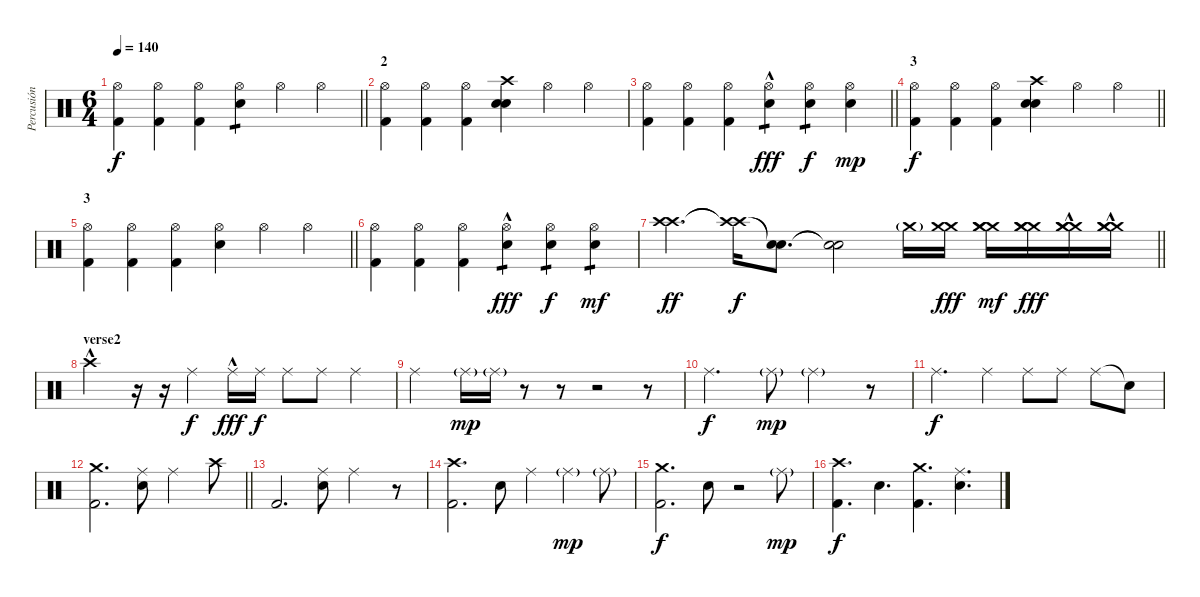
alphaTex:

\track ("Percusión" "Percusión") {instrument percussion}
\staff {score}
\articulation defaults
\ts (6 4)
\tempo 140
\clef neutral
\barLineRight lightlight
\ks c
("Hi-Hat (open)" "Kick (hit) 2").4{dy f} ("Hi-Hat (open)" "Kick (hit) 2").4 ("Hi-Hat (open)" "Kick (hit) 2").4 ("Hi-Hat (open)" "Snare (hit) 2").4{tp 1} "Hi-Hat (open)".4 "Hi-Hat (open)".4 |
\section ("" "2")
("Hi-Hat (open)" "Kick (hit) 2").4 ("Hi-Hat (open)" "Kick (hit) 2").4 ("Hi-Hat (open)" "Kick (hit) 2").4 ("Crash high (hit)" "Electric Snare (hit)" "Electric Snare (hit)").4 "Hi-Hat (open)".4 "Hi-Hat (open)".4 |
\barLineRight lightlight
("Hi-Hat (open)" "Kick (hit) 2").4 ("Hi-Hat (open)" "Kick (hit) 2").4 ("Hi-Hat (open)" "Kick (hit) 2").4 ("Hi-Hat (open)" "Electric Snare (hit)"{hac}).4{tp 1 dy fff} ("Hi-Hat (open)" "Snare (hit) 2").4{tp 1 dy f} ("Hi-Hat (open)" "Snare (hit) 2").4{dy mp} |
\section ("" "3")
\barLineRight lightlight
("Hi-Hat (open)" "Kick (hit) 2").4{dy f} ("Hi-Hat (open)" "Kick (hit) 2").4 ("Hi-Hat (open)" "Kick (hit) 2").4 ("Crash high (hit)" "Electric Snare (hit)" "Electric Snare (hit)").4 "Hi-Hat (open)".4 "Hi-Hat (open)".4 |
\section ("" "3")
\barLineRight lightlight
("Hi-Hat (open)" "Kick (hit) 2").4 ("Hi-Hat (open)" "Kick (hit) 2").4 ("Hi-Hat (open)" "Kick (hit) 2").4 ("Hi-Hat (open)" "Snare (hit) 2").4 "Hi-Hat (open)".4 "Hi-Hat (open)".4 |
("Hi-Hat (open)" "Kick (hit) 2").4 ("Hi-Hat (open)" "Kick (hit) 2").4 ("Hi-Hat (open)" "Kick (hit) 2").4 ("Hi-Hat (open)" "Electric Snare (hit)"{hac}).4{tp 1 dy fff} ("Hi-Hat (open)" "Snare (hit) 2").4{tp 1 dy f} ("Hi-Hat (open)" "Snare (hit) 2").4{tp 1 dy mf} |
\barLineRight lightlight
("Crash high (hit)" "Crash high (hit)").4{d dy ff} ("Crash high (hit)"{t} "Crash high (hit)"{t}).16{dy f} ("Snare (hit)"{t} "Snare (hit)"{t}).8{d} ("Snare (hit)"{t} "Snare (hit)"{t}).2 "Crash medium (hit)"{g}.16 ("Crash medium (hit)" "Crash medium (hit)").16{dy fff} ("Crash medium (hit)" "Crash medium (hit)" "Crash medium (hit)").16{dy mf} ("Crash medium (hit)" "Crash medium (hit)" "Crash medium (hit)").16{dy fff} ("Crash medium (hit)"{hac} "Crash medium (hit)" "Crash medium (hit)").16 ("Crash medium (hit)"{hac} "Crash medium (hit)" "Crash medium (hit)").16 |
\section ("" "verse2")
"Crash high (hit)"{hac}.2 r.16 r.16 "Ride (middle)".4{dy f} "Ride (middle)"{hac}.16{dy fff} "Ride (middle)".16{dy f} "Ride (middle)".8 "Ride (middle)".8 "Ride (middle)".4 |
"Ride (middle)".2 "Ride (middle)"{g}.16{dy mp} "Ride (middle)"{g}.16 r.8 r.8 r.2 r.8 |
"Ride (middle)".2{d dy f} "Ride (middle)"{g}.8{dy mp} "Ride (middle)"{g}.2 r.8 |
"Ride (middle)".2{d dy f} "Ride (middle)".4 "Ride (middle)".8 "Ride (middle)".8 "Ride (middle)".8 "Snare (hit)"{t}.8 |
\barLineRight lightlight
("Crash medium (hit)" "Kick (hit) 2").2{d} ("Ride (middle)" "Electric Snare (hit)").8 "Ride (middle)".2 "Crash high (hit)".8 |
"Kick (hit) 2".2{d} ("Ride (middle)" "Electric Snare (hit)").8 "Ride (middle)".2 r.8 |
("Crash high (hit)" "Kick (hit) 2").2{d} "Electric Snare (hit)".8 "Ride (middle)".4 "Ride (middle)"{g}.4{dy mp} "Ride (middle)"{g}.8 |
("Crash medium (hit)" "Kick (hit) 2").2{d dy f} "Electric Snare (hit)".8 r.2 "Ride (middle)"{g}.8{dy mp} |
("Crash high (hit)" "Kick (hit) 2").4{d dy f} "Electric Snare (hit)".4{d} ("Crash medium (hit)" "Kick (hit) 2").4{d} ("Ride (middle)" "Electric Snare (hit)").4{d}
